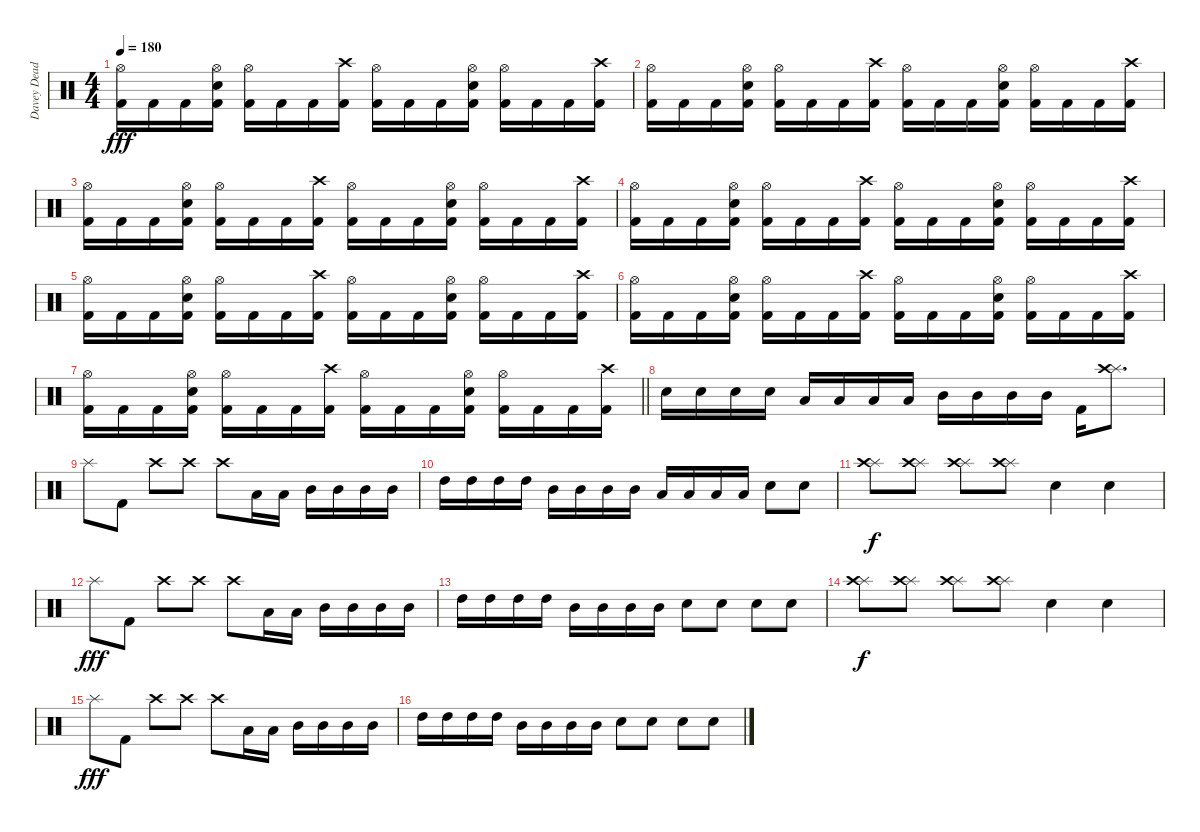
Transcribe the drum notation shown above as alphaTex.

\track ("Davey Dead" "Davey Dead") {instrument percussion}
\staff {score}
\articulation defaults
\ts (4 4)
\tempo 180
\clef neutral
\ks c
("Hi-Hat (open)" "Kick (hit) 2").16{dy fff} "Kick (hit) 2".16 "Kick (hit) 2".16 ("Hi-Hat (open)" "Electric Snare (hit)" "Kick (hit) 2").16 ("Hi-Hat (open)" "Kick (hit) 2").16 "Kick (hit) 2".16 "Kick (hit) 2".16 ("Crash high (hit)" "Kick (hit) 2").16 ("Hi-Hat (open)" "Kick (hit) 2").16 "Kick (hit) 2".16 "Kick (hit) 2".16 ("Hi-Hat (open)" "Electric Snare (hit)" "Kick (hit) 2").16 ("Hi-Hat (open)" "Kick (hit) 2").16 "Kick (hit) 2".16 "Kick (hit) 2".16 ("Crash high (hit)" "Kick (hit) 2").16 |
("Hi-Hat (open)" "Kick (hit) 2").16 "Kick (hit) 2".16 "Kick (hit) 2".16 ("Hi-Hat (open)" "Electric Snare (hit)" "Kick (hit) 2").16 ("Hi-Hat (open)" "Kick (hit) 2").16 "Kick (hit) 2".16 "Kick (hit) 2".16 ("Crash high (hit)" "Kick (hit) 2").16 ("Hi-Hat (open)" "Kick (hit) 2").16 "Kick (hit) 2".16 "Kick (hit) 2".16 ("Hi-Hat (open)" "Electric Snare (hit)" "Kick (hit) 2").16 ("Hi-Hat (open)" "Kick (hit) 2").16 "Kick (hit) 2".16 "Kick (hit) 2".16 ("Crash high (hit)" "Kick (hit) 2").16 |
("Hi-Hat (open)" "Kick (hit) 2").16 "Kick (hit) 2".16 "Kick (hit) 2".16 ("Hi-Hat (open)" "Electric Snare (hit)" "Kick (hit) 2").16 ("Hi-Hat (open)" "Kick (hit) 2").16 "Kick (hit) 2".16 "Kick (hit) 2".16 ("Crash high (hit)" "Kick (hit) 2").16 ("Hi-Hat (open)" "Kick (hit) 2").16 "Kick (hit) 2".16 "Kick (hit) 2".16 ("Hi-Hat (open)" "Electric Snare (hit)" "Kick (hit) 2").16 ("Hi-Hat (open)" "Kick (hit) 2").16 "Kick (hit) 2".16 "Kick (hit) 2".16 ("Crash high (hit)" "Kick (hit) 2").16 |
("Hi-Hat (open)" "Kick (hit) 2").16 "Kick (hit) 2".16 "Kick (hit) 2".16 ("Hi-Hat (open)" "Electric Snare (hit)" "Kick (hit) 2").16 ("Hi-Hat (open)" "Kick (hit) 2").16 "Kick (hit) 2".16 "Kick (hit) 2".16 ("Crash high (hit)" "Kick (hit) 2").16 ("Hi-Hat (open)" "Kick (hit) 2").16 "Kick (hit) 2".16 "Kick (hit) 2".16 ("Hi-Hat (open)" "Electric Snare (hit)" "Kick (hit) 2").16 ("Hi-Hat (open)" "Kick (hit) 2").16 "Kick (hit) 2".16 "Kick (hit) 2".16 ("Crash high (hit)" "Kick (hit) 2").16 |
("Hi-Hat (open)" "Kick (hit) 2").16 "Kick (hit) 2".16 "Kick (hit) 2".16 ("Hi-Hat (open)" "Electric Snare (hit)" "Kick (hit) 2").16 ("Hi-Hat (open)" "Kick (hit) 2").16 "Kick (hit) 2".16 "Kick (hit) 2".16 ("Crash high (hit)" "Kick (hit) 2").16 ("Hi-Hat (open)" "Kick (hit) 2").16 "Kick (hit) 2".16 "Kick (hit) 2".16 ("Hi-Hat (open)" "Electric Snare (hit)" "Kick (hit) 2").16 ("Hi-Hat (open)" "Kick (hit) 2").16 "Kick (hit) 2".16 "Kick (hit) 2".16 ("Crash high (hit)" "Kick (hit) 2").16 |
("Hi-Hat (open)" "Kick (hit) 2").16 "Kick (hit) 2".16 "Kick (hit) 2".16 ("Hi-Hat (open)" "Electric Snare (hit)" "Kick (hit) 2").16 ("Hi-Hat (open)" "Kick (hit) 2").16 "Kick (hit) 2".16 "Kick (hit) 2".16 ("Crash high (hit)" "Kick (hit) 2").16 ("Hi-Hat (open)" "Kick (hit) 2").16 "Kick (hit) 2".16 "Kick (hit) 2".16 ("Hi-Hat (open)" "Electric Snare (hit)" "Kick (hit) 2").16 ("Hi-Hat (open)" "Kick (hit) 2").16 "Kick (hit) 2".16 "Kick (hit) 2".16 ("Crash high (hit)" "Kick (hit) 2").16 |
\barLineRight lightlight
("Hi-Hat (open)" "Kick (hit) 2").16 "Kick (hit) 2".16 "Kick (hit) 2".16 ("Hi-Hat (open)" "Electric Snare (hit)" "Kick (hit) 2").16 ("Hi-Hat (open)" "Kick (hit) 2").16 "Kick (hit) 2".16 "Kick (hit) 2".16 ("Crash high (hit)" "Kick (hit) 2").16 ("Hi-Hat (open)" "Kick (hit) 2").16 "Kick (hit) 2".16 "Kick (hit) 2".16 ("Hi-Hat (open)" "Electric Snare (hit)" "Kick (hit) 2").16 ("Hi-Hat (open)" "Kick (hit) 2").16 "Kick (hit) 2".16 "Kick (hit) 2".16 ("Crash high (hit)" "Kick (hit) 2").16 |
"Electric Snare (hit)".16 "Electric Snare (hit)".16 "Electric Snare (hit)".16 "Electric Snare (hit)".16 "Low Tom (hit)".16 "Low Tom (hit)".16 "Low Tom (hit)".16 "Low Tom (hit)".16 "Mid Tom (hit)".16 "Mid Tom (hit)".16 "Mid Tom (hit)".16 "Mid Tom (hit)".16 "Kick (hit) 2".16 ("Splash (hit)" "Crash high (hit)").8{d} |
"Splash (hit)".8 "Kick (hit) 2".8 "Crash high (hit)".8 "Crash high (hit)".8 "Crash high (hit)".8 "Low Tom (hit)".16 "Low Tom (hit)".16 "Mid Tom (hit)".16 "Mid Tom (hit)".16 "Mid Tom (hit)".16 "Mid Tom (hit)".16 |
"High Tom (hit)".16 "High Tom (hit)".16 "High Tom (hit)".16 "High Tom (hit)".16 "Mid Tom (hit)".16 "Mid Tom (hit)".16 "Mid Tom (hit)".16 "Mid Tom (hit)".16 "Low Tom (hit)".16 "Low Tom (hit)".16 "Low Tom (hit)".16 "Low Tom (hit)".16 "Electric Snare (hit)".8 "Electric Snare (hit)".8 |
("Splash (hit)" "Crash high (hit)").8{dy f} ("Splash (hit)" "Crash high (hit)").8 ("Splash (hit)" "Crash high (hit)").8 ("Splash (hit)" "Crash high (hit)").8 "Electric Snare (hit)".4 "Electric Snare (hit)".4 |
"Splash (hit)".8{dy fff} "Kick (hit) 2".8 "Crash high (hit)".8 "Crash high (hit)".8 "Crash high (hit)".8 "Low Tom (hit)".16 "Low Tom (hit)".16 "Mid Tom (hit)".16 "Mid Tom (hit)".16 "Mid Tom (hit)".16 "Mid Tom (hit)".16 |
"High Tom (hit)".16 "High Tom (hit)".16 "High Tom (hit)".16 "High Tom (hit)".16 "Mid Tom (hit)".16 "Mid Tom (hit)".16 "Mid Tom (hit)".16 "Mid Tom (hit)".16 "Electric Snare (hit)".8 "Electric Snare (hit)".8 "Electric Snare (hit)".8 "Electric Snare (hit)".8 |
("Splash (hit)" "Crash high (hit)").8{dy f} ("Splash (hit)" "Crash high (hit)").8 ("Splash (hit)" "Crash high (hit)").8 ("Splash (hit)" "Crash high (hit)").8 "Electric Snare (hit)".4 "Electric Snare (hit)".4 |
"Splash (hit)".8{dy fff} "Kick (hit) 2".8 "Crash high (hit)".8 "Crash high (hit)".8 "Crash high (hit)".8 "Low Tom (hit)".16 "Low Tom (hit)".16 "Mid Tom (hit)".16 "Mid Tom (hit)".16 "Mid Tom (hit)".16 "Mid Tom (hit)".16 |
"High Tom (hit)".16 "High Tom (hit)".16 "High Tom (hit)".16 "High Tom (hit)".16 "Mid Tom (hit)".16 "Mid Tom (hit)".16 "Mid Tom (hit)".16 "Mid Tom (hit)".16 "Electric Snare (hit)".8 "Electric Snare (hit)".8 "Electric Snare (hit)".8 "Electric Snare (hit)".8
